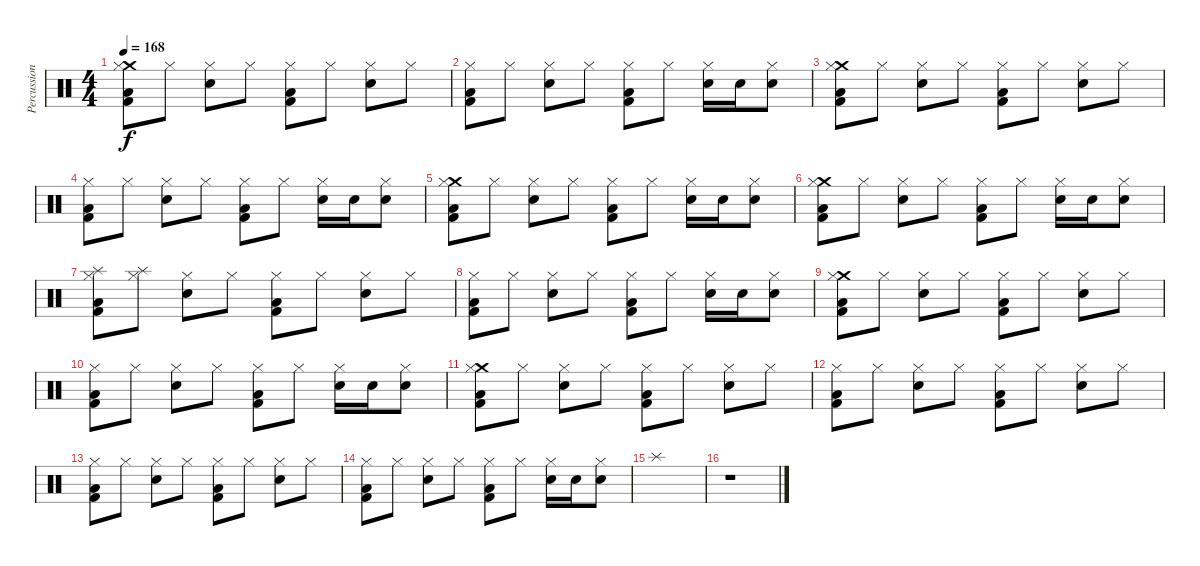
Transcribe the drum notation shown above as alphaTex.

\track ("Percussions" "Percussion") {instrument percussion}
\staff {score}
\articulation defaults
\ts (4 4)
\tempo 168
\clef neutral
\ks c
("Kick (hit) 2" "Low Floor Tom (hit)" "Crash medium (hit)" "Hi-Hat (closed)").8{dy f} "Hi-Hat (closed)".8 ("Snare (hit) 2" "Hi-Hat (closed)").8 "Hi-Hat (closed)".8 ("Kick (hit) 2" "Low Floor Tom (hit)" "Hi-Hat (closed)").8 "Hi-Hat (closed)".8 ("Snare (hit) 2" "Hi-Hat (closed)").8 "Hi-Hat (closed)".8 |
("Kick (hit) 2" "Low Floor Tom (hit)" "Hi-Hat (closed)").8 "Hi-Hat (closed)".8 ("Snare (hit) 2" "Hi-Hat (closed)").8 "Hi-Hat (closed)".8 ("Kick (hit) 2" "Low Floor Tom (hit)" "Hi-Hat (closed)").8 "Hi-Hat (closed)".8 ("Snare (hit) 2" "Hi-Hat (closed)").16 "Snare (hit) 2".16 ("Snare (hit) 2" "Hi-Hat (closed)").8 |
("Kick (hit) 2" "Low Floor Tom (hit)" "Crash medium (hit)" "Hi-Hat (closed)").8 "Hi-Hat (closed)".8 ("Snare (hit) 2" "Hi-Hat (closed)").8 "Hi-Hat (closed)".8 ("Kick (hit) 2" "Low Floor Tom (hit)" "Hi-Hat (closed)").8 "Hi-Hat (closed)".8 ("Snare (hit) 2" "Hi-Hat (closed)").8 "Hi-Hat (closed)".8 |
("Kick (hit) 2" "Low Floor Tom (hit)" "Hi-Hat (closed)").8 "Hi-Hat (closed)".8 ("Snare (hit) 2" "Hi-Hat (closed)").8 "Hi-Hat (closed)".8 ("Kick (hit) 2" "Low Floor Tom (hit)" "Hi-Hat (closed)").8 "Hi-Hat (closed)".8 ("Snare (hit) 2" "Hi-Hat (closed)").16 "Snare (hit) 2".16 ("Snare (hit) 2" "Hi-Hat (closed)").8 |
("Kick (hit) 2" "Low Floor Tom (hit)" "Crash medium (hit)" "Hi-Hat (closed)").8 "Hi-Hat (closed)".8 ("Snare (hit) 2" "Hi-Hat (closed)").8 "Hi-Hat (closed)".8 ("Kick (hit) 2" "Low Floor Tom (hit)" "Hi-Hat (closed)").8 "Hi-Hat (closed)".8 ("Snare (hit) 2" "Hi-Hat (closed)").16 "Snare (hit) 2".16 ("Snare (hit) 2" "Hi-Hat (closed)").8 |
("Kick (hit) 2" "Low Floor Tom (hit)" "Crash medium (hit)" "Hi-Hat (closed)").8 "Hi-Hat (closed)".8 ("Snare (hit) 2" "Hi-Hat (closed)").8 "Hi-Hat (closed)".8 ("Kick (hit) 2" "Low Floor Tom (hit)" "Hi-Hat (closed)").8 "Hi-Hat (closed)".8 ("Snare (hit) 2" "Hi-Hat (closed)").16 "Snare (hit) 2".16 ("Snare (hit) 2" "Hi-Hat (closed)").8 |
("Kick (hit) 2" "Low Floor Tom (hit)" "Splash (hit)" "Hi-Hat (closed)").8 ("Splash (hit)" "Hi-Hat (closed)").8 ("Snare (hit) 2" "Hi-Hat (closed)").8 "Hi-Hat (closed)".8 ("Kick (hit) 2" "Low Floor Tom (hit)" "Hi-Hat (closed)").8 "Hi-Hat (closed)".8 ("Snare (hit) 2" "Hi-Hat (closed)").8 "Hi-Hat (closed)".8 |
("Kick (hit) 2" "Low Floor Tom (hit)" "Hi-Hat (closed)").8 "Hi-Hat (closed)".8 ("Snare (hit) 2" "Hi-Hat (closed)").8 "Hi-Hat (closed)".8 ("Kick (hit) 2" "Low Floor Tom (hit)" "Hi-Hat (closed)").8 "Hi-Hat (closed)".8 ("Snare (hit) 2" "Hi-Hat (closed)").16 "Snare (hit) 2".16 ("Snare (hit) 2" "Hi-Hat (closed)").8 |
("Kick (hit) 2" "Low Floor Tom (hit)" "Crash medium (hit)" "Hi-Hat (closed)").8 "Hi-Hat (closed)".8 ("Snare (hit) 2" "Hi-Hat (closed)").8 "Hi-Hat (closed)".8 ("Kick (hit) 2" "Low Floor Tom (hit)" "Hi-Hat (closed)").8 "Hi-Hat (closed)".8 ("Snare (hit) 2" "Hi-Hat (closed)").8 "Hi-Hat (closed)".8 |
("Kick (hit) 2" "Low Floor Tom (hit)" "Hi-Hat (closed)").8 "Hi-Hat (closed)".8 ("Snare (hit) 2" "Hi-Hat (closed)").8 "Hi-Hat (closed)".8 ("Kick (hit) 2" "Low Floor Tom (hit)" "Hi-Hat (closed)").8 "Hi-Hat (closed)".8 ("Snare (hit) 2" "Hi-Hat (closed)").16 "Snare (hit) 2".16 ("Snare (hit) 2" "Hi-Hat (closed)").8 |
("Kick (hit) 2" "Low Floor Tom (hit)" "Crash medium (hit)" "Hi-Hat (closed)").8 "Hi-Hat (closed)".8 ("Snare (hit) 2" "Hi-Hat (closed)").8 "Hi-Hat (closed)".8 ("Kick (hit) 2" "Low Floor Tom (hit)" "Hi-Hat (closed)").8 "Hi-Hat (closed)".8 ("Snare (hit) 2" "Hi-Hat (closed)").8 "Hi-Hat (closed)".8 |
("Kick (hit) 2" "Low Floor Tom (hit)" "Hi-Hat (closed)").8 "Hi-Hat (closed)".8 ("Snare (hit) 2" "Hi-Hat (closed)").8 "Hi-Hat (closed)".8 ("Kick (hit) 2" "Low Floor Tom (hit)" "Hi-Hat (closed)").8 "Hi-Hat (closed)".8 ("Snare (hit) 2" "Hi-Hat (closed)").8 "Hi-Hat (closed)".8 |
("Kick (hit) 2" "Low Floor Tom (hit)" "Hi-Hat (closed)").8 "Hi-Hat (closed)".8 ("Snare (hit) 2" "Hi-Hat (closed)").8 "Hi-Hat (closed)".8 ("Kick (hit) 2" "Low Floor Tom (hit)" "Hi-Hat (closed)").8 "Hi-Hat (closed)".8 ("Snare (hit) 2" "Hi-Hat (closed)").8 "Hi-Hat (closed)".8 |
("Kick (hit) 2" "Low Floor Tom (hit)" "Hi-Hat (closed)").8 "Hi-Hat (closed)".8 ("Snare (hit) 2" "Hi-Hat (closed)").8 "Hi-Hat (closed)".8 ("Kick (hit) 2" "Low Floor Tom (hit)" "Hi-Hat (closed)").8 "Hi-Hat (closed)".8 ("Snare (hit) 2" "Hi-Hat (closed)").16 "Snare (hit) 2".16 ("Snare (hit) 2" "Hi-Hat (closed)").8 |
"Splash (hit)".1 |
r.1
